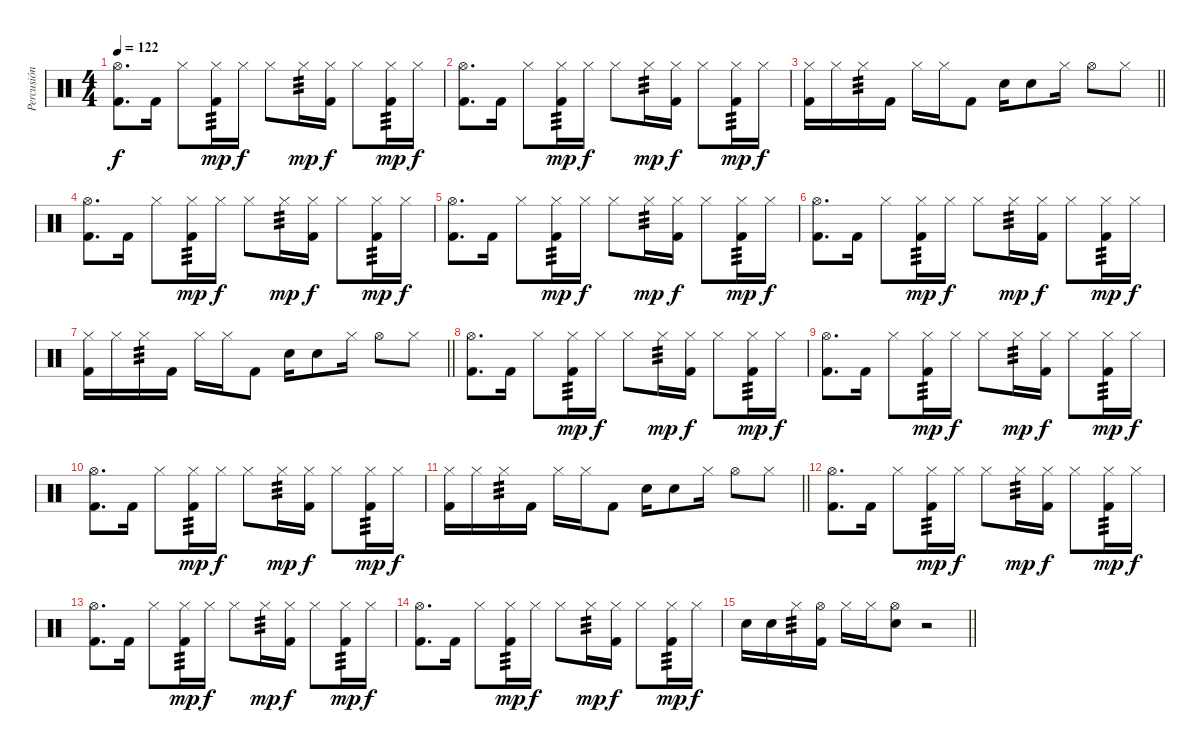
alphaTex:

\track ("Percusión" "Percusión") {instrument percussion}
\staff {score}
\articulation defaults
\ts (4 4)
\tempo 122
\clef neutral
\ks c
("Hi-Hat (open)" "Kick (hit) 2").8{d dy f} "Kick (hit) 2".16 "Hi-Hat (closed)".8 ("Kick (hit) 2" "Hi-Hat (closed)").16{tp 3 dy mp} "Hi-Hat (closed)".16{dy f} "Hi-Hat (closed)".8 "Hi-Hat (closed)".16{tp 3 dy mp} ("Kick (hit) 2" "Hi-Hat (closed)").16{dy f} "Hi-Hat (closed)".8 ("Kick (hit) 2" "Hi-Hat (closed)").16{tp 3 dy mp} "Hi-Hat (closed)".16{dy f} |
("Hi-Hat (open)" "Kick (hit) 2").8{d} "Kick (hit) 2".16 "Hi-Hat (closed)".8 ("Kick (hit) 2" "Hi-Hat (closed)").16{tp 3 dy mp} "Hi-Hat (closed)".16{dy f} "Hi-Hat (closed)".8 "Hi-Hat (closed)".16{tp 3 dy mp} ("Kick (hit) 2" "Hi-Hat (closed)").16{dy f} "Hi-Hat (closed)".8 ("Kick (hit) 2" "Hi-Hat (closed)").16{tp 3 dy mp} "Hi-Hat (closed)".16{dy f} |
\barLineRight lightlight
("Hi-Hat (closed)" "Kick (hit) 2").16 "Hi-Hat (closed)".16 "Hi-Hat (closed)".16{tp 3} "Kick (hit) 2".16 "Hi-Hat (closed)".16 "Hi-Hat (closed)".16 "Kick (hit) 2".8 "Electric Snare (hit)".16 "Electric Snare (hit)".8 "Hi-Hat (closed)".16 "Hi-Hat (open)".8 "Hi-Hat (closed)".8 |
("Hi-Hat (open)" "Kick (hit) 2").8{d} "Kick (hit) 2".16 "Hi-Hat (closed)".8 ("Kick (hit) 2" "Hi-Hat (closed)").16{tp 3 dy mp} "Hi-Hat (closed)".16{dy f} "Hi-Hat (closed)".8 "Hi-Hat (closed)".16{tp 3 dy mp} ("Kick (hit) 2" "Hi-Hat (closed)").16{dy f} "Hi-Hat (closed)".8 ("Kick (hit) 2" "Hi-Hat (closed)").16{tp 3 dy mp} "Hi-Hat (closed)".16{dy f} |
("Hi-Hat (open)" "Kick (hit) 2").8{d} "Kick (hit) 2".16 "Hi-Hat (closed)".8 ("Kick (hit) 2" "Hi-Hat (closed)").16{tp 3 dy mp} "Hi-Hat (closed)".16{dy f} "Hi-Hat (closed)".8 "Hi-Hat (closed)".16{tp 3 dy mp} ("Kick (hit) 2" "Hi-Hat (closed)").16{dy f} "Hi-Hat (closed)".8 ("Kick (hit) 2" "Hi-Hat (closed)").16{tp 3 dy mp} "Hi-Hat (closed)".16{dy f} |
("Hi-Hat (open)" "Kick (hit) 2").8{d} "Kick (hit) 2".16 "Hi-Hat (closed)".8 ("Kick (hit) 2" "Hi-Hat (closed)").16{tp 3 dy mp} "Hi-Hat (closed)".16{dy f} "Hi-Hat (closed)".8 "Hi-Hat (closed)".16{tp 3 dy mp} ("Kick (hit) 2" "Hi-Hat (closed)").16{dy f} "Hi-Hat (closed)".8 ("Kick (hit) 2" "Hi-Hat (closed)").16{tp 3 dy mp} "Hi-Hat (closed)".16{dy f} |
\barLineRight lightlight
("Hi-Hat (closed)" "Kick (hit) 2").16 "Hi-Hat (closed)".16 "Hi-Hat (closed)".16{tp 3} "Kick (hit) 2".16 "Hi-Hat (closed)".16 "Hi-Hat (closed)".16 "Kick (hit) 2".8 "Electric Snare (hit)".16 "Electric Snare (hit)".8 "Hi-Hat (closed)".16 "Hi-Hat (open)".8 "Hi-Hat (closed)".8 |
("Hi-Hat (open)" "Kick (hit) 2").8{d} "Kick (hit) 2".16 "Hi-Hat (closed)".8 ("Kick (hit) 2" "Hi-Hat (closed)").16{tp 3 dy mp} "Hi-Hat (closed)".16{dy f} "Hi-Hat (closed)".8 "Hi-Hat (closed)".16{tp 3 dy mp} ("Kick (hit) 2" "Hi-Hat (closed)").16{dy f} "Hi-Hat (closed)".8 ("Kick (hit) 2" "Hi-Hat (closed)").16{tp 3 dy mp} "Hi-Hat (closed)".16{dy f} |
("Hi-Hat (open)" "Kick (hit) 2").8{d} "Kick (hit) 2".16 "Hi-Hat (closed)".8 ("Kick (hit) 2" "Hi-Hat (closed)").16{tp 3 dy mp} "Hi-Hat (closed)".16{dy f} "Hi-Hat (closed)".8 "Hi-Hat (closed)".16{tp 3 dy mp} ("Kick (hit) 2" "Hi-Hat (closed)").16{dy f} "Hi-Hat (closed)".8 ("Kick (hit) 2" "Hi-Hat (closed)").16{tp 3 dy mp} "Hi-Hat (closed)".16{dy f} |
("Hi-Hat (open)" "Kick (hit) 2").8{d} "Kick (hit) 2".16 "Hi-Hat (closed)".8 ("Kick (hit) 2" "Hi-Hat (closed)").16{tp 3 dy mp} "Hi-Hat (closed)".16{dy f} "Hi-Hat (closed)".8 "Hi-Hat (closed)".16{tp 3 dy mp} ("Kick (hit) 2" "Hi-Hat (closed)").16{dy f} "Hi-Hat (closed)".8 ("Kick (hit) 2" "Hi-Hat (closed)").16{tp 3 dy mp} "Hi-Hat (closed)".16{dy f} |
\barLineRight lightlight
("Hi-Hat (closed)" "Kick (hit) 2").16 "Hi-Hat (closed)".16 "Hi-Hat (closed)".16{tp 3} "Kick (hit) 2".16 "Hi-Hat (closed)".16 "Hi-Hat (closed)".16 "Kick (hit) 2".8 "Electric Snare (hit)".16 "Electric Snare (hit)".8 "Hi-Hat (closed)".16 "Hi-Hat (open)".8 "Hi-Hat (closed)".8 |
("Hi-Hat (open)" "Kick (hit) 2").8{d} "Kick (hit) 2".16 "Hi-Hat (closed)".8 ("Kick (hit) 2" "Hi-Hat (closed)").16{tp 3 dy mp} "Hi-Hat (closed)".16{dy f} "Hi-Hat (closed)".8 "Hi-Hat (closed)".16{tp 3 dy mp} ("Kick (hit) 2" "Hi-Hat (closed)").16{dy f} "Hi-Hat (closed)".8 ("Kick (hit) 2" "Hi-Hat (closed)").16{tp 3 dy mp} "Hi-Hat (closed)".16{dy f} |
("Hi-Hat (open)" "Kick (hit) 2").8{d} "Kick (hit) 2".16 "Hi-Hat (closed)".8 ("Kick (hit) 2" "Hi-Hat (closed)").16{tp 3 dy mp} "Hi-Hat (closed)".16{dy f} "Hi-Hat (closed)".8 "Hi-Hat (closed)".16{tp 3 dy mp} ("Kick (hit) 2" "Hi-Hat (closed)").16{dy f} "Hi-Hat (closed)".8 ("Kick (hit) 2" "Hi-Hat (closed)").16{tp 3 dy mp} "Hi-Hat (closed)".16{dy f} |
("Hi-Hat (open)" "Kick (hit) 2").8{d} "Kick (hit) 2".16 "Hi-Hat (closed)".8 ("Kick (hit) 2" "Hi-Hat (closed)").16{tp 3 dy mp} "Hi-Hat (closed)".16{dy f} "Hi-Hat (closed)".8 "Hi-Hat (closed)".16{tp 3 dy mp} ("Kick (hit) 2" "Hi-Hat (closed)").16{dy f} "Hi-Hat (closed)".8 ("Kick (hit) 2" "Hi-Hat (closed)").16{tp 3 dy mp} "Hi-Hat (closed)".16{dy f} |
\barLineRight lightlight "Electric Snare (hit)".16 "Electric Snare (hit)".16 "Hi-Hat (closed)".16{tp 3}
("Hi-Hat (open)" "Kick (hit) 2").16 "Hi-Hat (closed)".16 "Hi-Hat (closed)".16 ("Hi-Hat (open)" "Electric Snare (hit)").8 r.2
